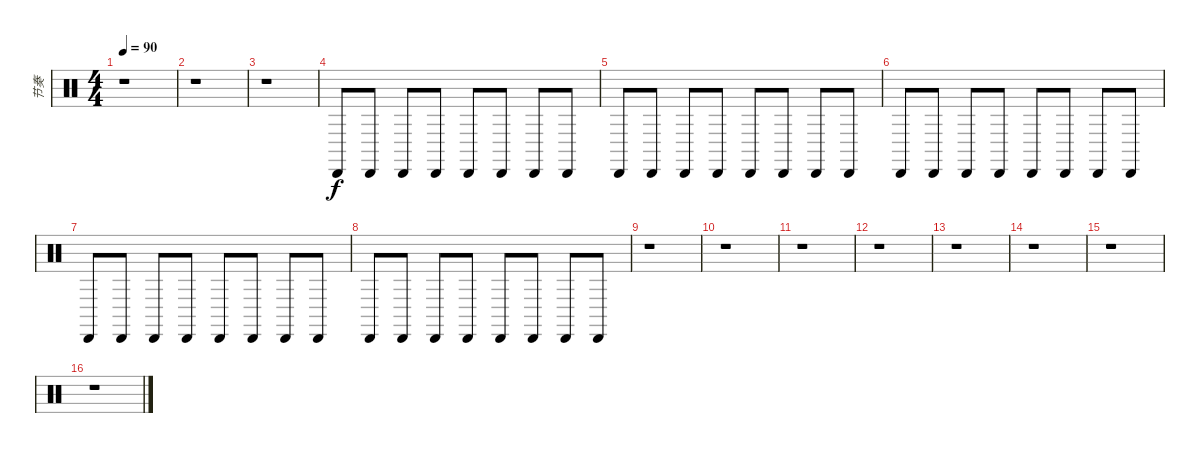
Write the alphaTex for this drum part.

\track ("节奏" "节奏") {instrument percussion}
\staff {score}
\articulation defaults
\ts (4 4)
\tempo 90
\clef neutral
\ks c
r.1{dy f} |
r.1 |
r.1 |
"Cabasa (hit)".8{volume 6} "Cabasa (hit)".8 "Cabasa (hit)".8{volume 13} "Cabasa (hit)".8{volume 6} "Cabasa (hit)".8 "Cabasa (hit)".8 "Cabasa (hit)".8{volume 13} "Cabasa (hit)".8{volume 6} |
"Cabasa (hit)".8{volume 6} "Cabasa (hit)".8 "Cabasa (hit)".8{volume 13} "Cabasa (hit)".8{volume 6} "Cabasa (hit)".8 "Cabasa (hit)".8 "Cabasa (hit)".8{volume 13} "Cabasa (hit)".8{volume 6} |
"Cabasa (hit)".8{volume 6} "Cabasa (hit)".8 "Cabasa (hit)".8{volume 13} "Cabasa (hit)".8{volume 6} "Cabasa (hit)".8 "Cabasa (hit)".8 "Cabasa (hit)".8{volume 13} "Cabasa (hit)".8{volume 6} |
"Cabasa (hit)".8{volume 6} "Cabasa (hit)".8 "Cabasa (hit)".8{volume 13} "Cabasa (hit)".8{volume 6} "Cabasa (hit)".8 "Cabasa (hit)".8 "Cabasa (hit)".8{volume 13} "Cabasa (hit)".8{volume 6} |
"Cabasa (hit)".8{volume 6} "Cabasa (hit)".8 "Cabasa (hit)".8{volume 13} "Cabasa (hit)".8{volume 6} "Cabasa (hit)".8 "Cabasa (hit)".8 "Cabasa (hit)".8{volume 13} "Cabasa (hit)".8{volume 6} |
r.1 |
r.1 |
r.1 |
r.1 |
r.1 |
r.1 |
r.1 |
r.1
